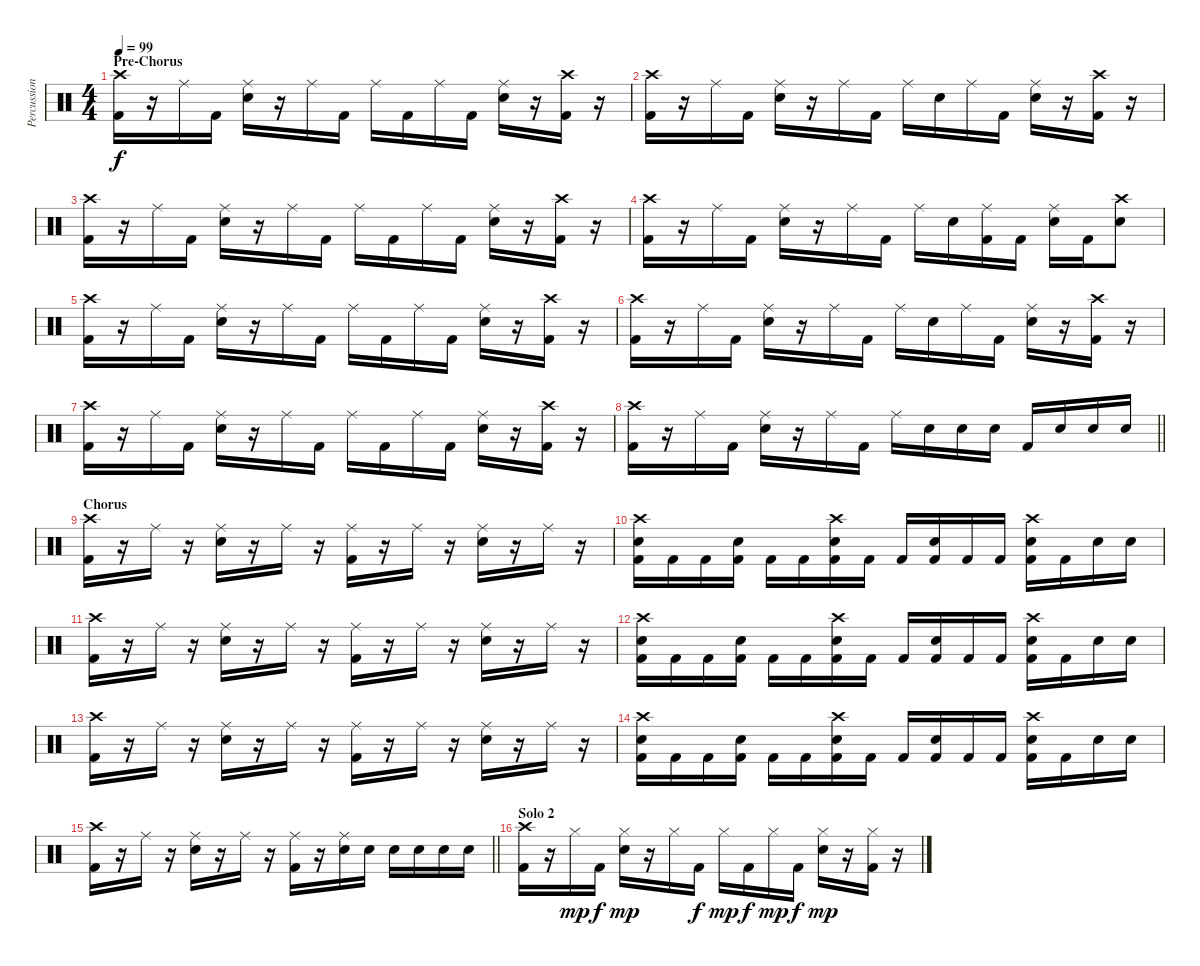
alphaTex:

\track ("Percussion" "Percussion") {instrument percussion}
\staff {score}
\articulation defaults
\ts (4 4)
\section ("" "Pre-Chorus")
\tempo 99
\clef neutral
\ks c
("Crash high (hit)" "Kick (hit) 2").16{dy f} r.16 "Ride (middle)".16 "Kick (hit) 2".16 ("Ride (middle)" "Snare (hit) 2").16 r.16 "Ride (middle)".16 "Kick (hit) 2".16 "Ride (middle)".16 "Kick (hit) 2".16 "Ride (middle)".16 "Kick (hit) 2".16 ("Ride (middle)" "Snare (hit) 2").16 r.16 ("Crash high (hit)" "Kick (hit) 2").16 r.16 |
("Crash high (hit)" "Kick (hit) 2").16 r.16 "Ride (middle)".16 "Kick (hit) 2".16 ("Ride (middle)" "Snare (hit) 2").16 r.16 "Ride (middle)".16 "Kick (hit) 2".16 "Ride (middle)".16 "Snare (hit) 2".16 "Ride (middle)".16 "Kick (hit) 2".16 ("Ride (middle)" "Snare (hit) 2").16 r.16 ("Crash high (hit)" "Kick (hit) 2").16 r.16 |
("Crash high (hit)" "Kick (hit) 2").16 r.16 "Ride (middle)".16 "Kick (hit) 2".16 ("Ride (middle)" "Snare (hit) 2").16 r.16 "Ride (middle)".16 "Kick (hit) 2".16 "Ride (middle)".16 "Kick (hit) 2".16 "Ride (middle)".16 "Kick (hit) 2".16 ("Ride (middle)" "Snare (hit) 2").16 r.16 ("Crash high (hit)" "Kick (hit) 2").16 r.16 |
("Crash high (hit)" "Kick (hit) 2").16 r.16 "Ride (middle)".16 "Kick (hit) 2".16 ("Ride (middle)" "Snare (hit) 2").16 r.16 "Ride (middle)".16 "Kick (hit) 2".16 "Ride (middle)".16 "Snare (hit) 2".16 ("Ride (middle)" "Kick (hit) 2").16 "Kick (hit) 2".16 ("Ride (middle)" "Snare (hit) 2").16 "Kick (hit) 2".16 ("Crash high (hit)" "Snare (hit) 2").8 |
("Crash high (hit)" "Kick (hit) 2").16 r.16 "Ride (middle)".16 "Kick (hit) 2".16 ("Ride (middle)" "Snare (hit) 2").16 r.16 "Ride (middle)".16 "Kick (hit) 2".16 "Ride (middle)".16 "Kick (hit) 2".16 "Ride (middle)".16 "Kick (hit) 2".16 ("Ride (middle)" "Snare (hit) 2").16 r.16 ("Crash high (hit)" "Kick (hit) 2").16 r.16 |
("Crash high (hit)" "Kick (hit) 2").16 r.16 "Ride (middle)".16 "Kick (hit) 2".16 ("Ride (middle)" "Snare (hit) 2").16 r.16 "Ride (middle)".16 "Kick (hit) 2".16 "Ride (middle)".16 "Snare (hit) 2".16 "Ride (middle)".16 "Kick (hit) 2".16 ("Ride (middle)" "Snare (hit) 2").16 r.16 ("Crash high (hit)" "Kick (hit) 2").16 r.16 |
("Crash high (hit)" "Kick (hit) 2").16 r.16 "Ride (middle)".16 "Kick (hit) 2".16 ("Ride (middle)" "Snare (hit) 2").16 r.16 "Ride (middle)".16 "Kick (hit) 2".16 "Ride (middle)".16 "Kick (hit) 2".16 "Ride (middle)".16 "Kick (hit) 2".16 ("Ride (middle)" "Snare (hit) 2").16 r.16 ("Crash high (hit)" "Kick (hit) 2").16 r.16 |
\barLineRight lightlight
("Crash high (hit)" "Kick (hit) 2").16 r.16 "Ride (middle)".16 "Kick (hit) 2".16 ("Ride (middle)" "Snare (hit) 2").16 r.16 "Ride (middle)".16 "Kick (hit) 2".16 "Ride (middle)".16 "Snare (hit) 2".16 "Snare (hit) 2".16 "Snare (hit) 2".16 "Kick (hit) 2".16 "Snare (hit) 2".16 "Snare (hit) 2".16 "Snare (hit) 2".16 |
\section ("" "Chorus")
("Crash high (hit)" "Kick (hit) 2").16 r.16 "Ride (middle)".16 r.16 ("Ride (middle)" "Snare (hit) 2").16 r.16 "Ride (middle)".16 r.16 ("Ride (middle)" "Kick (hit) 2").16 r.16 "Ride (middle)".16 r.16 ("Ride (middle)" "Snare (hit) 2").16 r.16 "Ride (middle)".16 r.16 |
("Crash high (hit)" "Snare (hit) 2" "Kick (hit) 2").16 "Kick (hit) 2".16 "Kick (hit) 2".16 ("Snare (hit) 2" "Kick (hit) 2").16 "Kick (hit) 2".16 "Kick (hit) 2".16 ("Crash high (hit)" "Snare (hit) 2" "Kick (hit) 2").16 "Kick (hit) 2".16 "Kick (hit) 2".16 ("Snare (hit) 2" "Kick (hit) 2").16 "Kick (hit) 2".16 "Kick (hit) 2".16 ("Crash high (hit)" "Snare (hit) 2" "Kick (hit) 2").16 "Kick (hit) 2".16 "Snare (hit) 2".16 "Snare (hit) 2".16 |
("Crash high (hit)" "Kick (hit) 2").16 r.16 "Ride (middle)".16 r.16 ("Ride (middle)" "Snare (hit) 2").16 r.16 "Ride (middle)".16 r.16 ("Ride (middle)" "Kick (hit) 2").16 r.16 "Ride (middle)".16 r.16 ("Ride (middle)" "Snare (hit) 2").16 r.16 "Ride (middle)".16 r.16 |
("Crash high (hit)" "Snare (hit) 2" "Kick (hit) 2").16 "Kick (hit) 2".16 "Kick (hit) 2".16 ("Snare (hit) 2" "Kick (hit) 2").16 "Kick (hit) 2".16 "Kick (hit) 2".16 ("Crash high (hit)" "Snare (hit) 2" "Kick (hit) 2").16 "Kick (hit) 2".16 "Kick (hit) 2".16 ("Snare (hit) 2" "Kick (hit) 2").16 "Kick (hit) 2".16 "Kick (hit) 2".16 ("Crash high (hit)" "Snare (hit) 2" "Kick (hit) 2").16 "Kick (hit) 2".16 "Snare (hit) 2".16 "Snare (hit) 2".16 |
("Crash high (hit)" "Kick (hit) 2").16 r.16 "Ride (middle)".16 r.16 ("Ride (middle)" "Snare (hit) 2").16 r.16 "Ride (middle)".16 r.16 ("Ride (middle)" "Kick (hit) 2").16 r.16 "Ride (middle)".16 r.16 ("Ride (middle)" "Snare (hit) 2").16 r.16 "Ride (middle)".16 r.16 |
("Crash high (hit)" "Snare (hit) 2" "Kick (hit) 2").16 "Kick (hit) 2".16 "Kick (hit) 2".16 ("Snare (hit) 2" "Kick (hit) 2").16 "Kick (hit) 2".16 "Kick (hit) 2".16 ("Crash high (hit)" "Snare (hit) 2" "Kick (hit) 2").16 "Kick (hit) 2".16 "Kick (hit) 2".16 ("Snare (hit) 2" "Kick (hit) 2").16 "Kick (hit) 2".16 "Kick (hit) 2".16 ("Crash high (hit)" "Snare (hit) 2" "Kick (hit) 2").16 "Kick (hit) 2".16 "Snare (hit) 2".16 "Snare (hit) 2".16 |
\barLineRight lightlight
("Crash high (hit)" "Kick (hit) 2").16 r.16 "Ride (middle)".16 r.16 ("Ride (middle)" "Snare (hit) 2").16 r.16 "Ride (middle)".16 r.16 ("Ride (middle)" "Kick (hit) 2").16 r.16 ("Ride (middle)" "Snare (hit) 2").16 "Snare (hit) 2".16 "Snare (hit) 2".16 "Snare (hit) 2".16 "Snare (hit) 2".16 "Snare (hit) 2".16 |
\section ("" "Solo 2")
("Crash high (hit)" "Kick (hit) 2").16 r.16 "Hi-Hat (closed)".16{dy mp} "Kick (hit) 2".16{dy f} ("Hi-Hat (closed)" "Snare (hit) 2").16{dy mp} r.16 "Hi-Hat (closed)".16 "Kick (hit) 2".16{dy f} "Hi-Hat (closed)".16{dy mp} "Kick (hit) 2".16{dy f} "Hi-Hat (closed)".16{dy mp} "Kick (hit) 2".16{dy f} ("Hi-Hat (closed)" "Snare (hit) 2").16{dy mp} r.16 ("Hi-Hat (closed)" "Kick (hit) 2").16 r.16
